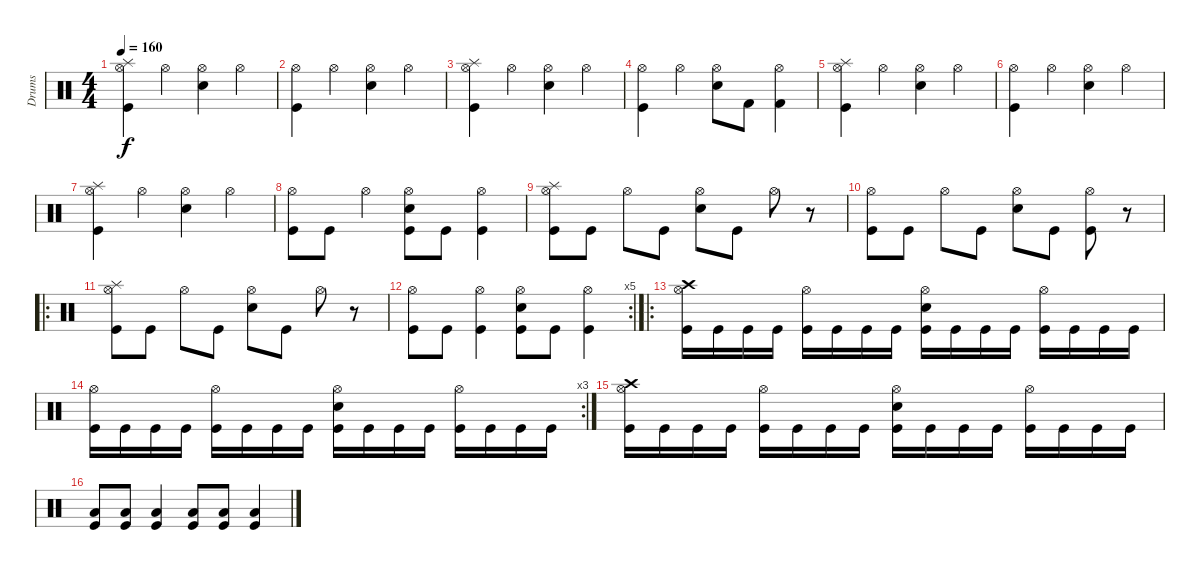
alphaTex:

\track ("Drums" "Drums") {instrument percussion}
\staff {score}
\articulation defaults
\ts (4 4)
\tempo 160
\clef neutral
\ks c
("Splash (hit)" "Hi-Hat (open)" "Kick (hit)").4{dy f} "Hi-Hat (open)".4 ("Hi-Hat (open)" "Snare (hit) 2").4 "Hi-Hat (open)".4 |
("Hi-Hat (open)" "Kick (hit)").4 "Hi-Hat (open)".4 ("Hi-Hat (open)" "Snare (hit) 2").4 "Hi-Hat (open)".4 |
("Splash (hit)" "Hi-Hat (open)" "Kick (hit)").4 "Hi-Hat (open)".4 ("Hi-Hat (open)" "Snare (hit) 2").4 "Hi-Hat (open)".4 |
("Hi-Hat (open)" "Kick (hit)").4 "Hi-Hat (open)".4 ("Hi-Hat (open)" "Snare (hit) 2").8 "Kick (hit) 2".8 ("Hi-Hat (open)" "Kick (hit) 2").4 |
("Splash (hit)" "Hi-Hat (open)" "Kick (hit)").4 "Hi-Hat (open)".4 ("Hi-Hat (open)" "Snare (hit) 2").4 "Hi-Hat (open)".4 |
("Hi-Hat (open)" "Kick (hit)").4 "Hi-Hat (open)".4 ("Hi-Hat (open)" "Snare (hit) 2").4 "Hi-Hat (open)".4 |
("Splash (hit)" "Hi-Hat (open)" "Kick (hit)").4 "Hi-Hat (open)".4 ("Hi-Hat (open)" "Snare (hit) 2").4 "Hi-Hat (open)".4 |
("Hi-Hat (open)" "Kick (hit)").8 "Kick (hit)".8 "Hi-Hat (open)".4 ("Hi-Hat (open)" "Snare (hit) 2" "Kick (hit)").8 "Kick (hit)".8 ("Hi-Hat (open)" "Kick (hit)").4 |
("Splash (hit)" "Hi-Hat (open)" "Kick (hit)").8 "Kick (hit)".8 "Hi-Hat (open)".8 "Kick (hit)".8 ("Hi-Hat (open)" "Snare (hit) 2").8 "Kick (hit)".8 "Hi-Hat (open)".8 r.8 |
("Hi-Hat (open)" "Kick (hit)").8 "Kick (hit)".8 "Hi-Hat (open)".8 "Kick (hit)".8 ("Hi-Hat (open)" "Snare (hit) 2").8 "Kick (hit)".8 ("Hi-Hat (open)" "Kick (hit)").8 r.8 |
\ro
("Splash (hit)" "Hi-Hat (open)" "Kick (hit)").8 "Kick (hit)".8 "Hi-Hat (open)".8 "Kick (hit)".8 ("Hi-Hat (open)" "Snare (hit) 2").8 "Kick (hit)".8 "Hi-Hat (open)".8 r.8 |
\rc 5
("Hi-Hat (open)" "Kick (hit)").8 "Kick (hit)".8 ("Hi-Hat (open)" "Kick (hit)").4 ("Hi-Hat (open)" "Snare (hit) 2" "Kick (hit)").8 "Kick (hit)".8 ("Hi-Hat (open)" "Kick (hit)").4 |
\ro
("Crash high (hit)" "Hi-Hat (open)" "Kick (hit)").16 "Kick (hit)".16 "Kick (hit)".16 "Kick (hit)".16 ("Hi-Hat (open)" "Kick (hit)").16 "Kick (hit)".16 "Kick (hit)".16 "Kick (hit)".16 ("Hi-Hat (open)" "Snare (hit) 2" "Kick (hit)").16 "Kick (hit)".16 "Kick (hit)".16 "Kick (hit)".16 ("Hi-Hat (open)" "Kick (hit)").16 "Kick (hit)".16 "Kick (hit)".16 "Kick (hit)".16 |
\rc 3
("Hi-Hat (open)" "Kick (hit)").16 "Kick (hit)".16 "Kick (hit)".16 "Kick (hit)".16 ("Hi-Hat (open)" "Kick (hit)").16 "Kick (hit)".16 "Kick (hit)".16 "Kick (hit)".16 ("Hi-Hat (open)" "Snare (hit) 2" "Kick (hit)").16 "Kick (hit)".16 "Kick (hit)".16 "Kick (hit)".16 ("Hi-Hat (open)" "Kick (hit)").16 "Kick (hit)".16 "Kick (hit)".16 "Kick (hit)".16 |
("Crash high (hit)" "Hi-Hat (open)" "Kick (hit)").16 "Kick (hit)".16 "Kick (hit)".16 "Kick (hit)".16 ("Hi-Hat (open)" "Kick (hit)").16 "Kick (hit)".16 "Kick (hit)".16 "Kick (hit)".16 ("Hi-Hat (open)" "Snare (hit) 2" "Kick (hit)").16 "Kick (hit)".16 "Kick (hit)".16 "Kick (hit)".16 ("Hi-Hat (open)" "Kick (hit)").16 "Kick (hit)".16 "Kick (hit)".16 "Kick (hit)".16 |
("Low Floor Tom (hit)" "Kick (hit)").8 ("Low Floor Tom (hit)" "Kick (hit)").8 ("Low Floor Tom (hit)" "Kick (hit)").4 ("Low Floor Tom (hit)" "Kick (hit)").8 ("Low Floor Tom (hit)" "Kick (hit)").8 ("Low Floor Tom (hit)" "Kick (hit)").4
